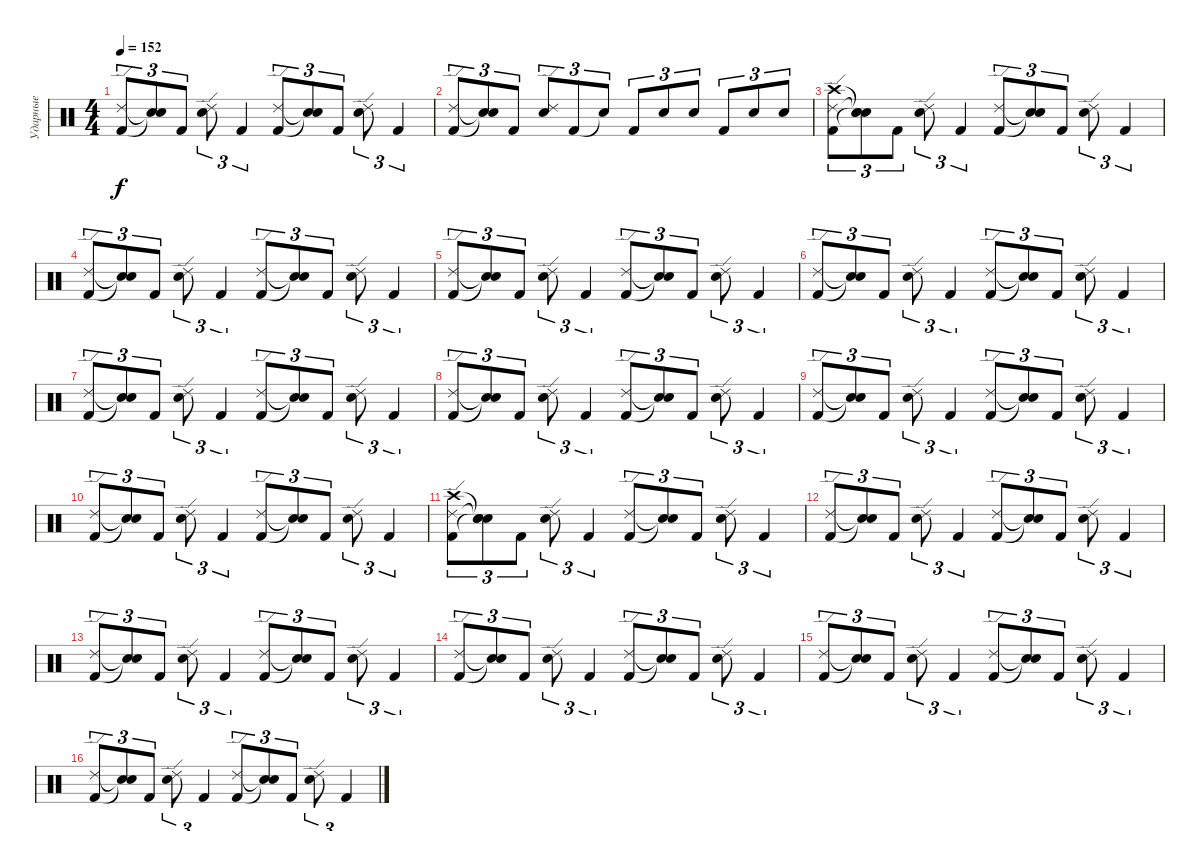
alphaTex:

\track ("Ударные" "Ударные") {instrument percussion}
\staff {score}
\articulation defaults
\ts (4 4)
\tempo 152
\clef neutral
\ks c
("Kick (hit) 2" "Ride (edge) 2").8{tu (3 2) dy f} ("Snare (hit)"{t} "Snare (hit)"{t}).8{tu (3 2)} "Kick (hit) 2".8{tu (3 2)} ("Electric Snare (hit)" "Ride (edge) 2").8{tu (3 2)} "Kick (hit) 2".4{tu (3 2)} ("Kick (hit) 2" "Ride (edge) 2").8{tu (3 2)} ("Snare (hit)"{t} "Snare (hit)"{t}).8{tu (3 2)} "Kick (hit) 2".8{tu (3 2)} ("Electric Snare (hit)" "Ride (edge) 2").8{tu (3 2)} "Kick (hit) 2".4{tu (3 2)} |
("Kick (hit) 2" "Ride (edge) 2").8{tu (3 2)} ("Snare (hit)"{t} "Snare (hit)"{t}).8{tu (3 2)} "Kick (hit) 2".8{tu (3 2)} ("Electric Snare (hit)" "Ride (edge) 2").8{tu (3 2)} "Kick (hit) 2".8{tu (3 2)} "Snare (hit)"{t}.8{tu (3 2)} "Kick (hit) 2".8{tu (3 2)} "Electric Snare (hit)".8{tu (3 2)} "Electric Snare (hit)".8{tu (3 2)} "Kick (hit) 2".8{tu (3 2)} "Electric Snare (hit)".8{tu (3 2)} "Electric Snare (hit)".8{tu (3 2)} |
("Kick (hit) 2" "Crash high (hit)" "Ride (edge) 2").8{tu (3 2)} ("Snare (hit)"{t} "Snare (hit)"{t} "Snare (hit)"{t}).8{tu (3 2)} "Kick (hit) 2".8{tu (3 2)} ("Electric Snare (hit)" "Ride (edge) 2").8{tu (3 2)} "Kick (hit) 2".4{tu (3 2)} ("Kick (hit) 2" "Ride (edge) 2").8{tu (3 2)} ("Snare (hit)"{t} "Snare (hit)"{t}).8{tu (3 2)} "Kick (hit) 2".8{tu (3 2)} ("Electric Snare (hit)" "Ride (edge) 2").8{tu (3 2)} "Kick (hit) 2".4{tu (3 2)} |
("Kick (hit) 2" "Ride (edge) 2").8{tu (3 2)} ("Snare (hit)"{t} "Snare (hit)"{t}).8{tu (3 2)} "Kick (hit) 2".8{tu (3 2)} ("Electric Snare (hit)" "Ride (edge) 2").8{tu (3 2)} "Kick (hit) 2".4{tu (3 2)} ("Kick (hit) 2" "Ride (edge) 2").8{tu (3 2)} ("Snare (hit)"{t} "Snare (hit)"{t}).8{tu (3 2)} "Kick (hit) 2".8{tu (3 2)} ("Electric Snare (hit)" "Ride (edge) 2").8{tu (3 2)} "Kick (hit) 2".4{tu (3 2)} |
("Kick (hit) 2" "Ride (edge) 2").8{tu (3 2)} ("Snare (hit)"{t} "Snare (hit)"{t}).8{tu (3 2)} "Kick (hit) 2".8{tu (3 2)} ("Electric Snare (hit)" "Ride (edge) 2").8{tu (3 2)} "Kick (hit) 2".4{tu (3 2)} ("Kick (hit) 2" "Ride (edge) 2").8{tu (3 2)} ("Snare (hit)"{t} "Snare (hit)"{t}).8{tu (3 2)} "Kick (hit) 2".8{tu (3 2)} ("Electric Snare (hit)" "Ride (edge) 2").8{tu (3 2)} "Kick (hit) 2".4{tu (3 2)} |
("Kick (hit) 2" "Ride (edge) 2").8{tu (3 2)} ("Snare (hit)"{t} "Snare (hit)"{t}).8{tu (3 2)} "Kick (hit) 2".8{tu (3 2)} ("Electric Snare (hit)" "Ride (edge) 2").8{tu (3 2)} "Kick (hit) 2".4{tu (3 2)} ("Kick (hit) 2" "Ride (edge) 2").8{tu (3 2)} ("Snare (hit)"{t} "Snare (hit)"{t}).8{tu (3 2)} "Kick (hit) 2".8{tu (3 2)} ("Electric Snare (hit)" "Ride (edge) 2").8{tu (3 2)} "Kick (hit) 2".4{tu (3 2)} |
("Kick (hit) 2" "Ride (edge) 2").8{tu (3 2)} ("Snare (hit)"{t} "Snare (hit)"{t}).8{tu (3 2)} "Kick (hit) 2".8{tu (3 2)} ("Electric Snare (hit)" "Ride (edge) 2").8{tu (3 2)} "Kick (hit) 2".4{tu (3 2)} ("Kick (hit) 2" "Ride (edge) 2").8{tu (3 2)} ("Snare (hit)"{t} "Snare (hit)"{t}).8{tu (3 2)} "Kick (hit) 2".8{tu (3 2)} ("Electric Snare (hit)" "Ride (edge) 2").8{tu (3 2)} "Kick (hit) 2".4{tu (3 2)} |
("Kick (hit) 2" "Ride (edge) 2").8{tu (3 2)} ("Snare (hit)"{t} "Snare (hit)"{t}).8{tu (3 2)} "Kick (hit) 2".8{tu (3 2)} ("Electric Snare (hit)" "Ride (edge) 2").8{tu (3 2)} "Kick (hit) 2".4{tu (3 2)} ("Kick (hit) 2" "Ride (edge) 2").8{tu (3 2)} ("Snare (hit)"{t} "Snare (hit)"{t}).8{tu (3 2)} "Kick (hit) 2".8{tu (3 2)} ("Electric Snare (hit)" "Ride (edge) 2").8{tu (3 2)} "Kick (hit) 2".4{tu (3 2)} |
("Kick (hit) 2" "Ride (edge) 2").8{tu (3 2)} ("Snare (hit)"{t} "Snare (hit)"{t}).8{tu (3 2)} "Kick (hit) 2".8{tu (3 2)} ("Electric Snare (hit)" "Ride (edge) 2").8{tu (3 2)} "Kick (hit) 2".4{tu (3 2)} ("Kick (hit) 2" "Ride (edge) 2").8{tu (3 2)} ("Snare (hit)"{t} "Snare (hit)"{t}).8{tu (3 2)} "Kick (hit) 2".8{tu (3 2)} ("Electric Snare (hit)" "Ride (edge) 2").8{tu (3 2)} "Kick (hit) 2".4{tu (3 2)} |
("Kick (hit) 2" "Ride (edge) 2").8{tu (3 2)} ("Snare (hit)"{t} "Snare (hit)"{t}).8{tu (3 2)} "Kick (hit) 2".8{tu (3 2)} ("Electric Snare (hit)" "Ride (edge) 2").8{tu (3 2)} "Kick (hit) 2".4{tu (3 2)} ("Kick (hit) 2" "Ride (edge) 2").8{tu (3 2)} ("Snare (hit)"{t} "Snare (hit)"{t}).8{tu (3 2)} "Kick (hit) 2".8{tu (3 2)} ("Electric Snare (hit)" "Ride (edge) 2").8{tu (3 2)} "Kick (hit) 2".4{tu (3 2)} |
("Kick (hit) 2" "Crash high (hit)" "Ride (edge) 2").8{tu (3 2)} ("Snare (hit)"{t} "Snare (hit)"{t} "Snare (hit)"{t}).8{tu (3 2)} "Kick (hit) 2".8{tu (3 2)} ("Electric Snare (hit)" "Ride (edge) 2").8{tu (3 2)} "Kick (hit) 2".4{tu (3 2)} ("Kick (hit) 2" "Ride (edge) 2").8{tu (3 2)} ("Snare (hit)"{t} "Snare (hit)"{t}).8{tu (3 2)} "Kick (hit) 2".8{tu (3 2)} ("Electric Snare (hit)" "Ride (edge) 2").8{tu (3 2)} "Kick (hit) 2".4{tu (3 2)} |
("Kick (hit) 2" "Ride (edge) 2").8{tu (3 2)} ("Snare (hit)"{t} "Snare (hit)"{t}).8{tu (3 2)} "Kick (hit) 2".8{tu (3 2)} ("Electric Snare (hit)" "Ride (edge) 2").8{tu (3 2)} "Kick (hit) 2".4{tu (3 2)} ("Kick (hit) 2" "Ride (edge) 2").8{tu (3 2)} ("Snare (hit)"{t} "Snare (hit)"{t}).8{tu (3 2)} "Kick (hit) 2".8{tu (3 2)} ("Electric Snare (hit)" "Ride (edge) 2").8{tu (3 2)} "Kick (hit) 2".4{tu (3 2)} |
("Kick (hit) 2" "Ride (edge) 2").8{tu (3 2)} ("Snare (hit)"{t} "Snare (hit)"{t}).8{tu (3 2)} "Kick (hit) 2".8{tu (3 2)} ("Electric Snare (hit)" "Ride (edge) 2").8{tu (3 2)} "Kick (hit) 2".4{tu (3 2)} ("Kick (hit) 2" "Ride (edge) 2").8{tu (3 2)} ("Snare (hit)"{t} "Snare (hit)"{t}).8{tu (3 2)} "Kick (hit) 2".8{tu (3 2)} ("Electric Snare (hit)" "Ride (edge) 2").8{tu (3 2)} "Kick (hit) 2".4{tu (3 2)} |
("Kick (hit) 2" "Ride (edge) 2").8{tu (3 2)} ("Snare (hit)"{t} "Snare (hit)"{t}).8{tu (3 2)} "Kick (hit) 2".8{tu (3 2)} ("Electric Snare (hit)" "Ride (edge) 2").8{tu (3 2)} "Kick (hit) 2".4{tu (3 2)} ("Kick (hit) 2" "Ride (edge) 2").8{tu (3 2)} ("Snare (hit)"{t} "Snare (hit)"{t}).8{tu (3 2)} "Kick (hit) 2".8{tu (3 2)} ("Electric Snare (hit)" "Ride (edge) 2").8{tu (3 2)} "Kick (hit) 2".4{tu (3 2)} |
("Kick (hit) 2" "Ride (edge) 2").8{tu (3 2)} ("Snare (hit)"{t} "Snare (hit)"{t}).8{tu (3 2)} "Kick (hit) 2".8{tu (3 2)} ("Electric Snare (hit)" "Ride (edge) 2").8{tu (3 2)} "Kick (hit) 2".4{tu (3 2)} ("Kick (hit) 2" "Ride (edge) 2").8{tu (3 2)} ("Snare (hit)"{t} "Snare (hit)"{t}).8{tu (3 2)} "Kick (hit) 2".8{tu (3 2)} ("Electric Snare (hit)" "Ride (edge) 2").8{tu (3 2)} "Kick (hit) 2".4{tu (3 2)} |
("Kick (hit) 2" "Ride (edge) 2").8{tu (3 2)} ("Snare (hit)"{t} "Snare (hit)"{t}).8{tu (3 2)} "Kick (hit) 2".8{tu (3 2)} ("Electric Snare (hit)" "Ride (edge) 2").8{tu (3 2)} "Kick (hit) 2".4{tu (3 2)} ("Kick (hit) 2" "Ride (edge) 2").8{tu (3 2)} ("Snare (hit)"{t} "Snare (hit)"{t}).8{tu (3 2)} "Kick (hit) 2".8{tu (3 2)} ("Electric Snare (hit)" "Ride (edge) 2").8{tu (3 2)} "Kick (hit) 2".4{tu (3 2)}
